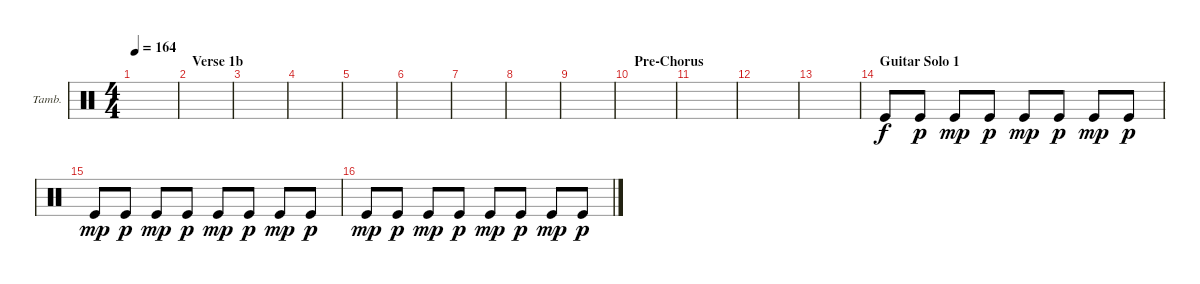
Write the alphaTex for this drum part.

\defaultSystemsLayout 4
\bracketExtendMode groupsimilarinstruments
\firstSystemTrackNameOrientation horizontal
\otherSystemsTrackNameOrientation horizontal
\track ("Tambourine" "Tamb.") {instrument percussion}
\staff {score}
\articulation defaults
\ts (4 4)
\tempo 164
\clef neutral
\scale
0.333333
\ks c
|
\section ("" "Verse 1b")
\scale
0.333333 |
\scale
0.333333 |
\scale
0.333333 |
\scale
0.333333 |
\scale
0.333333 |
\scale
0.333333 |
\scale
0.333333 |
\scale
0.333333 |
\section ("" "Pre-Chorus")
\scale
0.333333 |
\scale
0.333333 |
\scale
0.333333 |
\scale
0.333333 |
\section ("" "Guitar Solo 1")
\scale
0.333333 "Kick (hit)".8 "Kick (hit)".8{dy p} "Kick (hit)".8{dy mp} "Kick (hit)".8{dy p} "Kick (hit)".8{dy mp} "Kick (hit)".8{dy p} "Kick (hit)".8{dy mp} "Kick (hit)".8{dy p} |
\scale
0.333333 "Kick (hit)".8{dy mp} "Kick (hit)".8{dy p} "Kick (hit)".8{dy mp} "Kick (hit)".8{dy p} "Kick (hit)".8{dy mp} "Kick (hit)".8{dy p} "Kick (hit)".8{dy mp} "Kick (hit)".8{dy p} |
\scale
0.333333 "Kick (hit)".8{dy mp} "Kick (hit)".8{dy p} "Kick (hit)".8{dy mp} "Kick (hit)".8{dy p} "Kick (hit)".8{dy mp} "Kick (hit)".8{dy p} "Kick (hit)".8{dy mp} "Kick (hit)".8{dy p}
